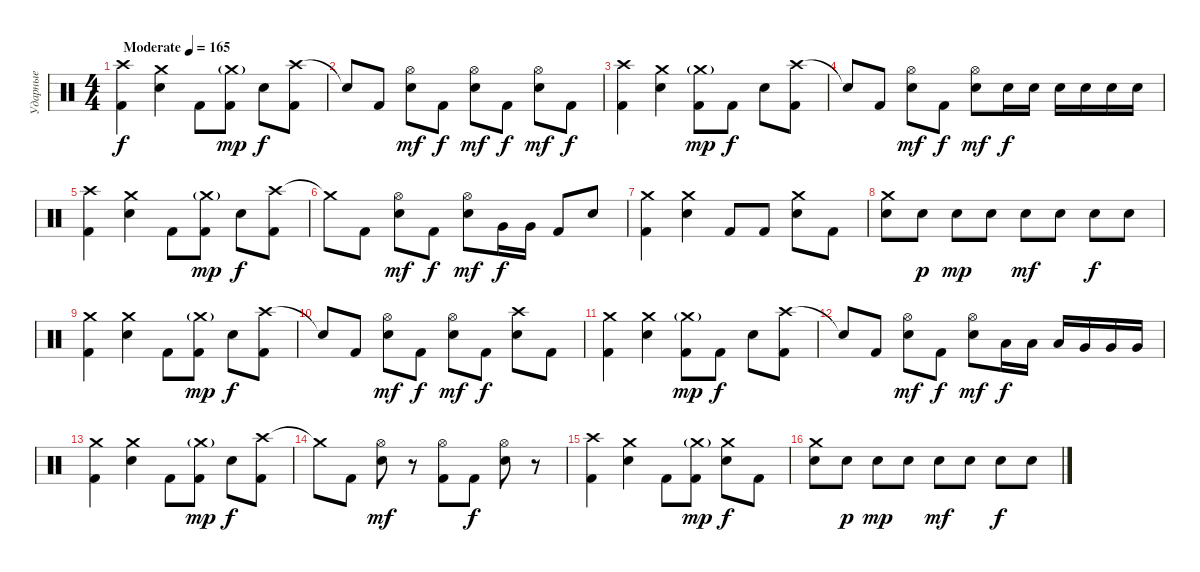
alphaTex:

\track ("Ударные" "Ударные") {instrument percussion}
\staff {score}
\articulation defaults
\ts (4 4)
\tempo (165 "Moderate")
\clef neutral
\ks c
("Crash high (hit)" "Kick (hit) 2").4{dy f} ("Crash medium (hit)" "Snare (hit) 2").4 "Kick (hit) 2".8 ("Crash medium (hit)"{g} "Kick (hit) 2").8{dy mp} "Snare (hit) 2".8{dy f} ("Crash high (hit)" "Kick (hit) 2").8 |
"Snare (hit)"{t}.8 "Kick (hit) 2".8 ("Hi-Hat (open)" "Snare (hit) 2").8{dy mf} "Kick (hit) 2".8{dy f} ("Hi-Hat (open)" "Snare (hit) 2").8{dy mf} "Kick (hit) 2".8{dy f} ("Hi-Hat (open)" "Snare (hit) 2").8{dy mf} "Kick (hit) 2".8{dy f} |
("Crash high (hit)" "Kick (hit) 2").4 ("Crash medium (hit)" "Snare (hit) 2").4 ("Crash medium (hit)"{g} "Kick (hit) 2").8{dy mp} "Kick (hit) 2".8{dy f} "Snare (hit) 2".8 ("Crash high (hit)" "Kick (hit) 2").8 |
"Snare (hit)"{t}.8 "Kick (hit) 2".8 ("Hi-Hat (open)" "Snare (hit) 2").8{dy mf} "Kick (hit) 2".8{dy f} ("Hi-Hat (open)" "Snare (hit) 2").8{dy mf} "Snare (hit) 2".16{dy f} "Snare (hit) 2".16 "Snare (hit) 2".16 "Snare (hit) 2".16 "Snare (hit) 2".16 "Snare (hit) 2".16 |
("Crash high (hit)" "Kick (hit) 2").4 ("Crash medium (hit)" "Snare (hit) 2").4 "Kick (hit) 2".8 ("Crash medium (hit)"{g} "Kick (hit) 2").8{dy mp} "Snare (hit) 2".8{dy f} ("Crash high (hit)" "Kick (hit) 2").8 |
"Crash medium (hit)"{t}.8 "Kick (hit) 2".8 ("Hi-Hat (open)" "Snare (hit) 2").8{dy mf} "Kick (hit) 2".8{dy f} ("Hi-Hat (open)" "Snare (hit) 2").8{dy mf} "Very Low Tom (hit)".16{dy f} "Very Low Tom (hit)".16 "Kick (hit) 2".8 "Snare (hit) 2".8 |
("Crash medium (hit)" "Kick (hit) 2").4 ("Crash medium (hit)" "Snare (hit) 2").4 "Kick (hit) 2".8 "Kick (hit) 2".8 ("Crash medium (hit)" "Snare (hit) 2").8 "Kick (hit) 2".8 |
("Crash medium (hit)" "Snare (hit) 2").8 "Snare (hit) 2".8{dy p} "Snare (hit) 2".8{dy mp} "Snare (hit) 2".8 "Snare (hit) 2".8{dy mf} "Snare (hit) 2".8 "Snare (hit) 2".8{dy f} "Snare (hit) 2".8 |
("Crash medium (hit)" "Kick (hit) 2").4 ("Crash medium (hit)" "Snare (hit) 2").4 "Kick (hit) 2".8 ("Crash medium (hit)"{g} "Kick (hit) 2").8{dy mp} "Snare (hit) 2".8{dy f} ("Crash high (hit)" "Kick (hit) 2").8 |
"Snare (hit)"{t}.8 "Kick (hit) 2".8 ("Hi-Hat (open)" "Snare (hit) 2").8{dy mf} "Kick (hit) 2".8{dy f} ("Hi-Hat (open)" "Snare (hit) 2").8{dy mf} "Kick (hit) 2".8{dy f} ("Crash high (hit)" "Snare (hit) 2").8 "Kick (hit) 2".8 |
("Crash medium (hit)" "Kick (hit) 2").4 ("Crash medium (hit)" "Snare (hit) 2").4 ("Crash medium (hit)"{g} "Kick (hit) 2").8{dy mp} "Kick (hit) 2".8{dy f} "Snare (hit) 2".8 ("Crash high (hit)" "Kick (hit) 2").8 |
"Snare (hit)"{t}.8 "Kick (hit) 2".8 ("Hi-Hat (open)" "Snare (hit) 2").8{dy mf} "Kick (hit) 2".8{dy f} ("Hi-Hat (open)" "Snare (hit) 2").8{dy mf} "Low Tom (hit)".16{dy f} "Low Tom (hit)".16 "Low Tom (hit)".16 "Very Low Tom (hit)".16 "Very Low Tom (hit)".16 "Very Low Tom (hit)".16 |
("Crash medium (hit)" "Kick (hit) 2").4 ("Crash medium (hit)" "Snare (hit) 2").4 "Kick (hit) 2".8 ("Crash medium (hit)"{g} "Kick (hit) 2").8{dy mp} "Snare (hit) 2".8{dy f} ("Crash high (hit)" "Kick (hit) 2").8 |
"Crash medium (hit)"{t}.8 "Kick (hit) 2".8 ("Hi-Hat (open)" "Snare (hit) 2").8{dy mf} r.8 ("Hi-Hat (open)" "Kick (hit) 2").8 "Kick (hit) 2".8{dy f} ("Hi-Hat (open)" "Snare (hit) 2").8 r.8 |
("Crash high (hit)" "Kick (hit) 2").4 ("Crash medium (hit)" "Snare (hit) 2").4 "Kick (hit) 2".8 ("Crash medium (hit)"{g} "Kick (hit) 2").8{dy mp} ("Crash medium (hit)" "Snare (hit) 2").8{dy f} "Kick (hit) 2".8 |
("Crash medium (hit)" "Snare (hit) 2").8 "Snare (hit) 2".8{dy p} "Snare (hit) 2".8{dy mp} "Snare (hit) 2".8 "Snare (hit) 2".8{dy mf} "Snare (hit) 2".8 "Snare (hit) 2".8{dy f} "Snare (hit) 2".8
